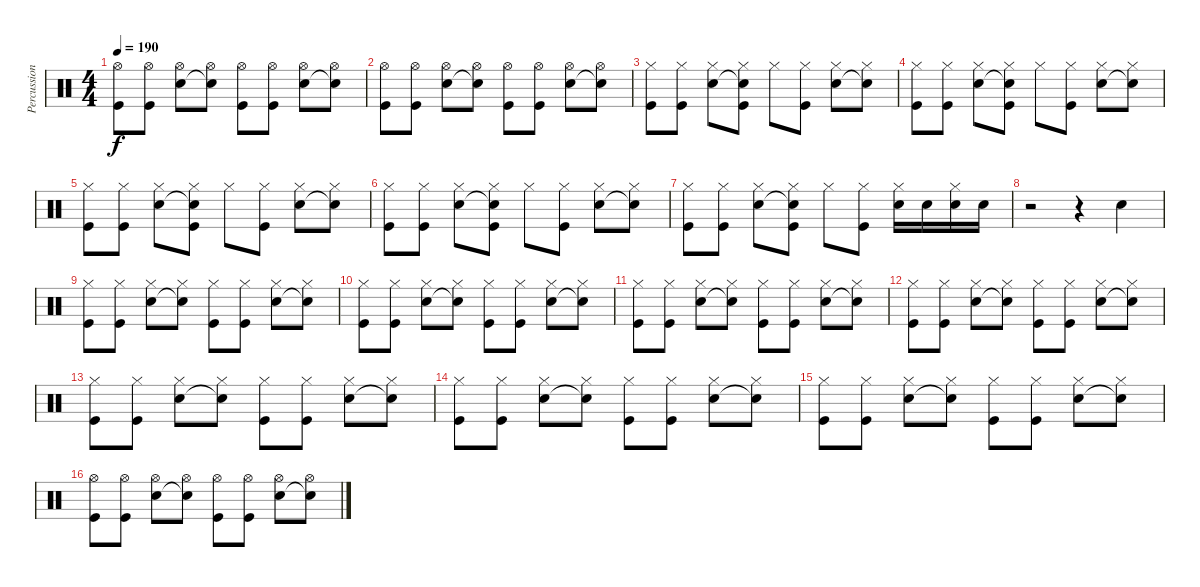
\track ("Percussions" "Percussion") {instrument percussion}
\staff {score}
\articulation defaults
\ts (4 4)
\tempo 190
\clef neutral
\ks c
("Hi-Hat (open)" "Kick (hit)").8{dy f} ("Hi-Hat (open)" "Kick (hit)").8 ("Hi-Hat (open)" "Electric Snare (hit)").8 ("Hi-Hat (open)" "Snare (hit)"{t}).8 ("Hi-Hat (open)" "Kick (hit)").8 ("Hi-Hat (open)" "Kick (hit)").8 ("Hi-Hat (open)" "Electric Snare (hit)").8 ("Hi-Hat (open)" "Snare (hit)"{t}).8 |
("Hi-Hat (open)" "Kick (hit)").8 ("Hi-Hat (open)" "Kick (hit)").8 ("Hi-Hat (open)" "Electric Snare (hit)").8 ("Hi-Hat (open)" "Snare (hit)"{t}).8 ("Hi-Hat (open)" "Kick (hit)").8 ("Hi-Hat (open)" "Kick (hit)").8 ("Hi-Hat (open)" "Electric Snare (hit)").8 ("Hi-Hat (open)" "Snare (hit)"{t}).8 |
("Hi-Hat (closed)" "Kick (hit)").8 ("Hi-Hat (closed)" "Kick (hit)").8 ("Hi-Hat (closed)" "Electric Snare (hit)").8 ("Hi-Hat (closed)" "Snare (hit)"{t} "Kick (hit)").8 "Hi-Hat (closed)".8 ("Hi-Hat (closed)" "Kick (hit)").8 ("Hi-Hat (closed)" "Electric Snare (hit)").8 ("Hi-Hat (closed)" "Snare (hit)"{t}).8 |
("Hi-Hat (closed)" "Kick (hit)").8 ("Hi-Hat (closed)" "Kick (hit)").8 ("Hi-Hat (closed)" "Electric Snare (hit)").8 ("Hi-Hat (closed)" "Snare (hit)"{t} "Kick (hit)").8 "Hi-Hat (closed)".8 ("Hi-Hat (closed)" "Kick (hit)").8 ("Hi-Hat (closed)" "Electric Snare (hit)").8 ("Hi-Hat (closed)" "Snare (hit)"{t}).8 |
("Hi-Hat (closed)" "Kick (hit)").8 ("Hi-Hat (closed)" "Kick (hit)").8 ("Hi-Hat (closed)" "Electric Snare (hit)").8 ("Hi-Hat (closed)" "Snare (hit)"{t} "Kick (hit)").8 "Hi-Hat (closed)".8 ("Hi-Hat (closed)" "Kick (hit)").8 ("Hi-Hat (closed)" "Electric Snare (hit)").8 ("Hi-Hat (closed)" "Snare (hit)"{t}).8 |
("Hi-Hat (closed)" "Kick (hit)").8 ("Hi-Hat (closed)" "Kick (hit)").8 ("Hi-Hat (closed)" "Electric Snare (hit)").8 ("Hi-Hat (closed)" "Snare (hit)"{t} "Kick (hit)").8 "Hi-Hat (closed)".8 ("Hi-Hat (closed)" "Kick (hit)").8 ("Hi-Hat (closed)" "Electric Snare (hit)").8 ("Hi-Hat (closed)" "Snare (hit)"{t}).8 |
("Hi-Hat (closed)" "Kick (hit)").8 ("Hi-Hat (closed)" "Kick (hit)").8 ("Hi-Hat (closed)" "Electric Snare (hit)").8 ("Hi-Hat (closed)" "Snare (hit)"{t} "Kick (hit)").8 "Hi-Hat (closed)".8 ("Hi-Hat (closed)" "Kick (hit)").8 ("Hi-Hat (closed)" "Electric Snare (hit)").16 "Electric Snare (hit)".16 ("Hi-Hat (closed)" "Electric Snare (hit)").16 "Electric Snare (hit)".16 |
r.2 r.4 "Electric Snare (hit)".4 |
("Hi-Hat (closed)" "Kick (hit)").8 ("Hi-Hat (closed)" "Kick (hit)").8 ("Hi-Hat (closed)" "Electric Snare (hit)").8 ("Hi-Hat (closed)" "Snare (hit)"{t}).8 ("Hi-Hat (closed)" "Kick (hit)").8 ("Hi-Hat (closed)" "Kick (hit)").8 ("Hi-Hat (closed)" "Electric Snare (hit)").8 ("Hi-Hat (closed)" "Snare (hit)"{t}).8 |
("Hi-Hat (closed)" "Kick (hit)").8 ("Hi-Hat (closed)" "Kick (hit)").8 ("Hi-Hat (closed)" "Electric Snare (hit)").8 ("Hi-Hat (closed)" "Snare (hit)"{t}).8 ("Hi-Hat (closed)" "Kick (hit)").8 ("Hi-Hat (closed)" "Kick (hit)").8 ("Hi-Hat (closed)" "Electric Snare (hit)").8 ("Hi-Hat (closed)" "Snare (hit)"{t}).8 |
("Hi-Hat (closed)" "Kick (hit)").8 ("Hi-Hat (closed)" "Kick (hit)").8 ("Hi-Hat (closed)" "Electric Snare (hit)").8 ("Hi-Hat (closed)" "Snare (hit)"{t}).8 ("Hi-Hat (closed)" "Kick (hit)").8 ("Hi-Hat (closed)" "Kick (hit)").8 ("Hi-Hat (closed)" "Electric Snare (hit)").8 ("Hi-Hat (closed)" "Snare (hit)"{t}).8 |
("Hi-Hat (closed)" "Kick (hit)").8 ("Hi-Hat (closed)" "Kick (hit)").8 ("Hi-Hat (closed)" "Electric Snare (hit)").8 ("Hi-Hat (closed)" "Snare (hit)"{t}).8 ("Hi-Hat (closed)" "Kick (hit)").8 ("Hi-Hat (closed)" "Kick (hit)").8 ("Hi-Hat (closed)" "Electric Snare (hit)").8 ("Hi-Hat (closed)" "Snare (hit)"{t}).8 |
("Hi-Hat (closed)" "Kick (hit)").8 ("Hi-Hat (closed)" "Kick (hit)").8 ("Hi-Hat (closed)" "Electric Snare (hit)").8 ("Hi-Hat (closed)" "Snare (hit)"{t}).8 ("Hi-Hat (closed)" "Kick (hit)").8 ("Hi-Hat (closed)" "Kick (hit)").8 ("Hi-Hat (closed)" "Electric Snare (hit)").8 ("Hi-Hat (closed)" "Snare (hit)"{t}).8 |
("Hi-Hat (closed)" "Kick (hit)").8 ("Hi-Hat (closed)" "Kick (hit)").8 ("Hi-Hat (closed)" "Electric Snare (hit)").8 ("Hi-Hat (closed)" "Snare (hit)"{t}).8 ("Hi-Hat (closed)" "Kick (hit)").8 ("Hi-Hat (closed)" "Kick (hit)").8 ("Hi-Hat (closed)" "Electric Snare (hit)").8 ("Hi-Hat (closed)" "Snare (hit)"{t}).8 |
("Hi-Hat (closed)" "Kick (hit)").8 ("Hi-Hat (closed)" "Kick (hit)").8 ("Hi-Hat (closed)" "Electric Snare (hit)").8 ("Hi-Hat (closed)" "Snare (hit)"{t}).8 ("Hi-Hat (closed)" "Kick (hit)").8 ("Hi-Hat (closed)" "Kick (hit)").8 ("Hi-Hat (closed)" "Electric Snare (hit)").8 ("Hi-Hat (closed)" "Snare (hit)"{t}).8 |
("Hi-Hat (open)" "Kick (hit)").8 ("Hi-Hat (open)" "Kick (hit)").8 ("Hi-Hat (open)" "Electric Snare (hit)").8 ("Hi-Hat (open)" "Snare (hit)"{t}).8 ("Hi-Hat (open)" "Kick (hit)").8 ("Hi-Hat (open)" "Kick (hit)").8 ("Hi-Hat (open)" "Electric Snare (hit)").8 ("Hi-Hat (open)" "Snare (hit)"{t}).8
